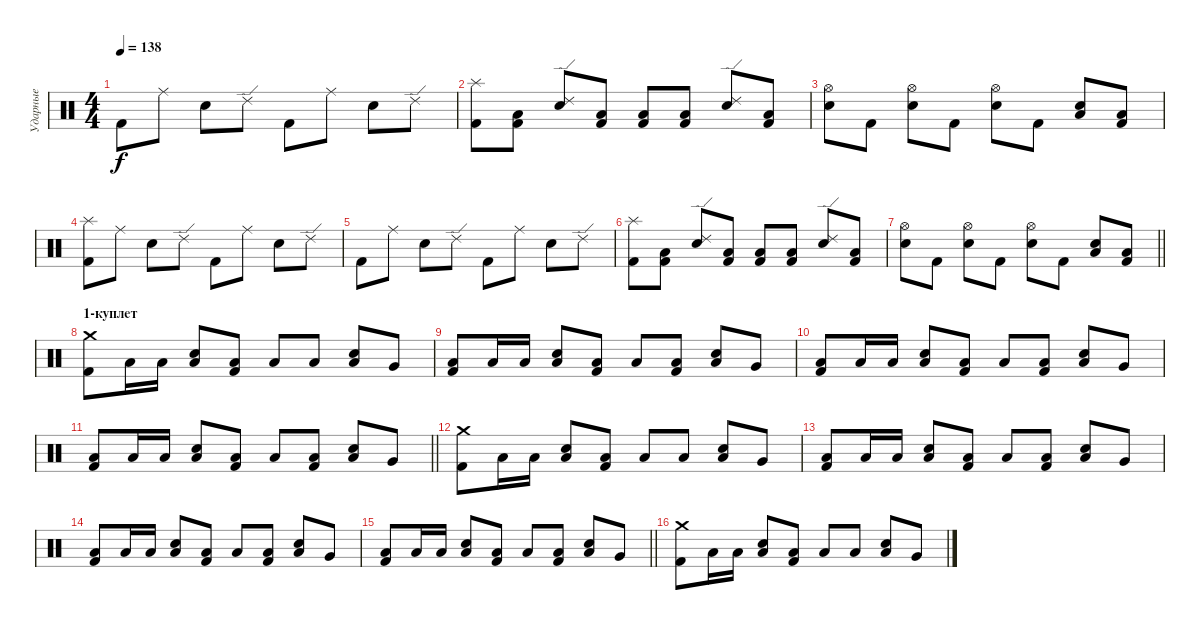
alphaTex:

\track ("Ударные" "Ударные") {instrument percussion}
\staff {score}
\articulation defaults
\ts (4 4)
\tempo 138
\clef neutral
\ks c "Kick (hit) 2".8{dy f} "Ride (middle)".8 "Snare (hit) 2".8 "Ride (edge) 2".8 "Kick (hit) 2".8 "Ride (middle)".8 "Snare (hit) 2".8 "Ride (edge) 2".8
|
("Splash (hit)" "Kick (hit) 2").8 ("Low Floor Tom (hit)" "Kick (hit) 2").8 ("Ride (edge) 2" "Snare (hit) 2").8 ("Low Floor Tom (hit)" "Kick (hit) 2").8 ("Low Floor Tom (hit)" "Kick (hit) 2").8 ("Low Tom (hit)" "Kick (hit) 2").8 ("Ride (edge) 2" "Snare (hit) 2").8 ("Low Floor Tom (hit)" "Kick (hit) 2").8 |
("Hi-Hat (open)" "Snare (hit) 2").8 "Kick (hit) 2".8 ("Hi-Hat (open)" "Snare (hit) 2").8 "Kick (hit) 2".8 ("Hi-Hat (open)" "Snare (hit) 2").8 "Kick (hit) 2".8 ("Low Tom (hit)" "Snare (hit) 2").8 ("Low Floor Tom (hit)" "Kick (hit) 2").8 |
("Splash (hit)" "Kick (hit) 2").8 "Ride (middle)".8 "Snare (hit) 2".8 "Ride (edge) 2".8 "Kick (hit) 2".8 "Ride (middle)".8 "Snare (hit) 2".8 "Ride (edge) 2".8 |
"Kick (hit) 2".8 "Ride (middle)".8 "Snare (hit) 2".8 "Ride (edge) 2".8 "Kick (hit) 2".8 "Ride (middle)".8 "Snare (hit) 2".8 "Ride (edge) 2".8 |
("Splash (hit)" "Kick (hit) 2").8 ("Low Floor Tom (hit)" "Kick (hit) 2").8 ("Ride (edge) 2" "Snare (hit) 2").8 ("Low Floor Tom (hit)" "Kick (hit) 2").8 ("Low Floor Tom (hit)" "Kick (hit) 2").8 ("Low Tom (hit)" "Kick (hit) 2").8 ("Ride (edge) 2" "Snare (hit) 2").8 ("Low Floor Tom (hit)" "Kick (hit) 2").8 |
\barLineRight lightlight
("Hi-Hat (open)" "Snare (hit) 2").8 "Kick (hit) 2".8 ("Hi-Hat (open)" "Snare (hit) 2").8 "Kick (hit) 2".8 ("Hi-Hat (open)" "Snare (hit) 2").8 "Kick (hit) 2".8 ("Low Tom (hit)" "Snare (hit) 2").8 ("Low Floor Tom (hit)" "Kick (hit) 2").8 |
\section ("" "1-куплет")
("Crash medium (hit)" "Kick (hit) 2").8 "Low Floor Tom (hit)".16 "Low Floor Tom (hit)".16 ("Low Floor Tom (hit)" "Snare (hit) 2").8 ("Low Floor Tom (hit)" "Kick (hit) 2").8 "Low Floor Tom (hit)".8 "Low Floor Tom (hit)".8 ("Low Floor Tom (hit)" "Snare (hit) 2").8 "Very Low Tom (hit)".8 |
("Low Tom (hit)" "Kick (hit) 2").8 "Low Floor Tom (hit)".16 "Low Floor Tom (hit)".16 ("Low Floor Tom (hit)" "Snare (hit) 2").8 ("Low Floor Tom (hit)" "Kick (hit) 2").8 "Low Floor Tom (hit)".8 ("Low Floor Tom (hit)" "Kick (hit) 2").8 ("Low Floor Tom (hit)" "Snare (hit) 2").8 "Very Low Tom (hit)".8 |
("Low Tom (hit)" "Kick (hit) 2").8 "Low Floor Tom (hit)".16 "Low Floor Tom (hit)".16 ("Low Floor Tom (hit)" "Snare (hit) 2").8 ("Low Floor Tom (hit)" "Kick (hit) 2").8 "Low Floor Tom (hit)".8 ("Low Floor Tom (hit)" "Kick (hit) 2").8 ("Low Floor Tom (hit)" "Snare (hit) 2").8 "Very Low Tom (hit)".8 |
\barLineRight lightlight
("Low Tom (hit)" "Kick (hit) 2").8 "Low Floor Tom (hit)".16 "Low Floor Tom (hit)".16 ("Low Floor Tom (hit)" "Snare (hit) 2").8 ("Low Floor Tom (hit)" "Kick (hit) 2").8 "Low Floor Tom (hit)".8 ("Low Floor Tom (hit)" "Kick (hit) 2").8 ("Low Floor Tom (hit)" "Snare (hit) 2").8 "Very Low Tom (hit)".8 |
("Crash medium (hit)" "Kick (hit) 2").8 "Low Floor Tom (hit)".16 "Low Floor Tom (hit)".16 ("Low Floor Tom (hit)" "Snare (hit) 2").8 ("Low Floor Tom (hit)" "Kick (hit) 2").8 "Low Floor Tom (hit)".8 "Low Floor Tom (hit)".8 ("Low Floor Tom (hit)" "Snare (hit) 2").8 "Very Low Tom (hit)".8 |
("Low Tom (hit)" "Kick (hit) 2").8 "Low Floor Tom (hit)".16 "Low Floor Tom (hit)".16 ("Low Floor Tom (hit)" "Snare (hit) 2").8 ("Low Floor Tom (hit)" "Kick (hit) 2").8 "Low Floor Tom (hit)".8 ("Low Floor Tom (hit)" "Kick (hit) 2").8 ("Low Floor Tom (hit)" "Snare (hit) 2").8 "Very Low Tom (hit)".8 |
("Low Tom (hit)" "Kick (hit) 2").8 "Low Floor Tom (hit)".16 "Low Floor Tom (hit)".16 ("Low Floor Tom (hit)" "Snare (hit) 2").8 ("Low Floor Tom (hit)" "Kick (hit) 2").8 "Low Floor Tom (hit)".8 ("Low Floor Tom (hit)" "Kick (hit) 2").8 ("Low Floor Tom (hit)" "Snare (hit) 2").8 "Very Low Tom (hit)".8 |
\barLineRight lightlight
("Low Tom (hit)" "Kick (hit) 2").8 "Low Floor Tom (hit)".16 "Low Floor Tom (hit)".16 ("Low Floor Tom (hit)" "Snare (hit) 2").8 ("Low Floor Tom (hit)" "Kick (hit) 2").8 "Low Floor Tom (hit)".8 ("Low Floor Tom (hit)" "Kick (hit) 2").8 ("Low Floor Tom (hit)" "Snare (hit) 2").8 "Very Low Tom (hit)".8 |
("Crash medium (hit)" "Kick (hit) 2").8 "Low Floor Tom (hit)".16 "Low Floor Tom (hit)".16 ("Low Floor Tom (hit)" "Snare (hit) 2").8 ("Low Floor Tom (hit)" "Kick (hit) 2").8 "Low Floor Tom (hit)".8 "Low Floor Tom (hit)".8 ("Low Floor Tom (hit)" "Snare (hit) 2").8 "Very Low Tom (hit)".8
